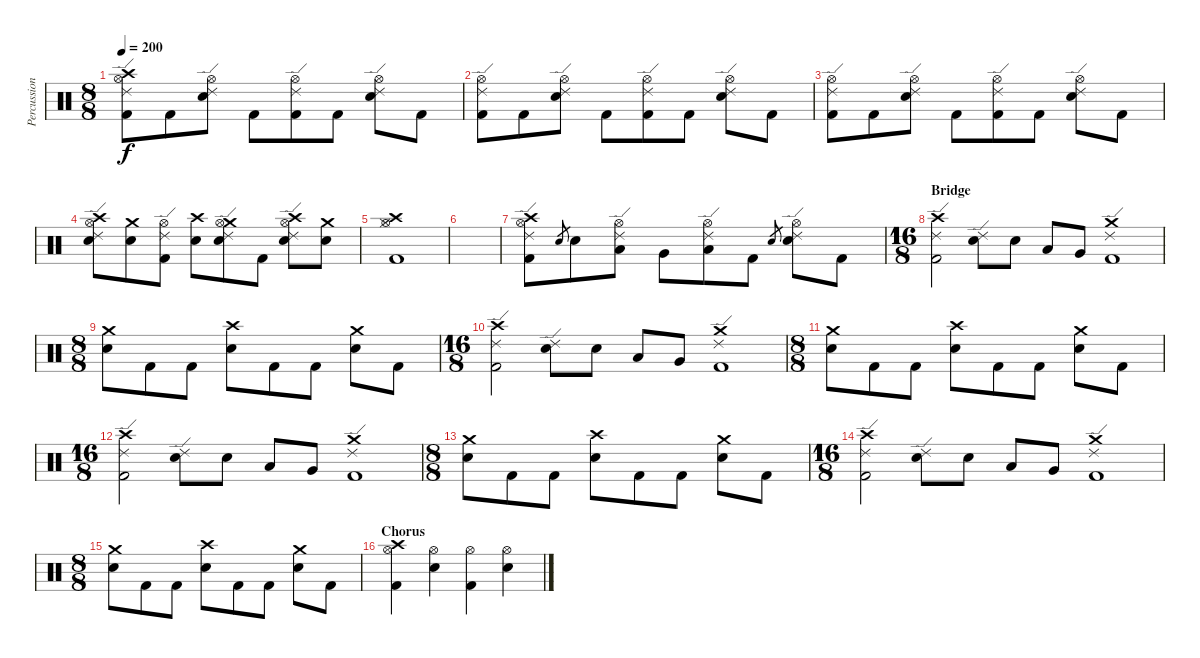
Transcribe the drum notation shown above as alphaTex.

\track ("Percussions" "Percussion") {instrument percussion}
\staff {score}
\articulation defaults
\ts (8 8)
\tempo 200
\clef neutral
\ks c
("Crash high (hit)" "Hi-Hat (open)" "Ride (edge) 2" "Kick (hit) 2").8{dy f} "Kick (hit) 2".8 ("Hi-Hat (open)" "Ride (edge) 2" "Electric Snare (hit)").8 "Kick (hit) 2".8 ("Hi-Hat (open)" "Ride (edge) 2" "Kick (hit) 2").8 "Kick (hit) 2".8 ("Hi-Hat (open)" "Ride (edge) 2" "Electric Snare (hit)").8 "Kick (hit) 2".8 |
("Hi-Hat (open)" "Ride (edge) 2" "Kick (hit) 2").8 "Kick (hit) 2".8 ("Hi-Hat (open)" "Ride (edge) 2" "Electric Snare (hit)").8 "Kick (hit) 2".8 ("Hi-Hat (open)" "Ride (edge) 2" "Kick (hit) 2").8 "Kick (hit) 2".8 ("Hi-Hat (open)" "Ride (edge) 2" "Electric Snare (hit)").8 "Kick (hit) 2".8 |
("Hi-Hat (open)" "Ride (edge) 2" "Kick (hit) 2").8 "Kick (hit) 2".8 ("Hi-Hat (open)" "Ride (edge) 2" "Electric Snare (hit)").8 "Kick (hit) 2".8 ("Hi-Hat (open)" "Ride (edge) 2" "Kick (hit) 2").8 "Kick (hit) 2".8 ("Hi-Hat (open)" "Ride (edge) 2" "Electric Snare (hit)").8 "Kick (hit) 2".8 |
("Crash high (hit)" "Ride (edge) 2" "Hi-Hat (open)" "Electric Snare (hit)").8 ("Crash medium (hit)" "Electric Snare (hit)").8 ("Ride (edge) 2" "Hi-Hat (open)" "Kick (hit) 2").8 ("Crash high (hit)" "Electric Snare (hit)").8 ("Crash medium (hit)" "Ride (edge) 2" "Hi-Hat (open)" "Electric Snare (hit)").8 "Kick (hit) 2".8 ("Crash high (hit)" "Ride (edge) 2" "Hi-Hat (open)" "Electric Snare (hit)").8 ("Crash medium (hit)" "Electric Snare (hit)").8 |
("Crash high (hit)" "Hi-Hat (closed)" "Hi-Hat (open)" "Kick (hit) 2").1 |
|
("Ride (edge) 2" "Crash high (hit)" "Hi-Hat (open)" "Kick (hit) 2").8 "Electric Snare (hit)".8{gr} "Electric Snare (hit)".8 ("Ride (edge) 2" "Hi-Hat (open)" "Low Tom (hit)").8 "Very Low Tom (hit)".8 ("Ride (edge) 2" "Hi-Hat (open)" "Low Floor Tom (hit)").8 "Kick (hit) 2".8 "Electric Snare (hit)".8{gr} ("Ride (edge) 2" "Hi-Hat (open)" "Electric Snare (hit)").8 "Kick (hit) 2".8 |
\ts (16 8)
\section ("" "Bridge")
("Crash high (hit)" "Ride (edge) 2" "Kick (hit) 2").2 ("Ride (edge) 2" "Electric Snare (hit)").8 "Electric Snare (hit)".8 "Low Tom (hit)".8 "Very Low Tom (hit)".8 ("Crash medium (hit)" "Ride (edge) 2" "Kick (hit) 2").1 |
\ts (8 8)
("Crash medium (hit)" "Electric Snare (hit)").8 "Kick (hit) 2".8 "Kick (hit) 2".8 ("Crash high (hit)" "Electric Snare (hit)").8 "Kick (hit) 2".8 "Kick (hit) 2".8 ("Crash medium (hit)" "Electric Snare (hit)").8 "Kick (hit) 2".8 |
\ts (16 8)
("Crash high (hit)" "Ride (edge) 2" "Kick (hit) 2").2 ("Ride (edge) 2" "Electric Snare (hit)").8 "Electric Snare (hit)".8 "Low Tom (hit)".8 "Very Low Tom (hit)".8 ("Crash medium (hit)" "Ride (edge) 2" "Kick (hit) 2").1 |
\ts (8 8)
("Crash medium (hit)" "Electric Snare (hit)").8 "Kick (hit) 2".8 "Kick (hit) 2".8 ("Crash high (hit)" "Electric Snare (hit)").8 "Kick (hit) 2".8 "Kick (hit) 2".8 ("Crash medium (hit)" "Electric Snare (hit)").8 "Kick (hit) 2".8 |
\ts (16 8)
("Crash high (hit)" "Ride (edge) 2" "Kick (hit) 2").2 ("Ride (edge) 2" "Electric Snare (hit)").8 "Electric Snare (hit)".8 "Low Tom (hit)".8 "Very Low Tom (hit)".8 ("Crash medium (hit)" "Ride (edge) 2" "Kick (hit) 2").1 |
\ts (8 8)
("Crash medium (hit)" "Electric Snare (hit)").8 "Kick (hit) 2".8 "Kick (hit) 2".8 ("Crash high (hit)" "Electric Snare (hit)").8 "Kick (hit) 2".8 "Kick (hit) 2".8 ("Crash medium (hit)" "Electric Snare (hit)").8 "Kick (hit) 2".8 |
\ts (16 8)
("Crash high (hit)" "Ride (edge) 2" "Kick (hit) 2").2 ("Ride (edge) 2" "Electric Snare (hit)").8 "Electric Snare (hit)".8 "Low Tom (hit)".8 "Very Low Tom (hit)".8 ("Crash medium (hit)" "Ride (edge) 2" "Kick (hit) 2").1 |
\ts (8 8)
("Crash medium (hit)" "Electric Snare (hit)").8 "Kick (hit) 2".8 "Kick (hit) 2".8 ("Crash high (hit)" "Electric Snare (hit)").8 "Kick (hit) 2".8 "Kick (hit) 2".8 ("Crash medium (hit)" "Electric Snare (hit)").8 "Kick (hit) 2".8 |
\section ("" "Chorus")
("Crash high (hit)" "Hi-Hat (open)" "Kick (hit) 2").4 ("Hi-Hat (open)" "Electric Snare (hit)").4 ("Hi-Hat (open)" "Kick (hit) 2").4 ("Hi-Hat (open)" "Electric Snare (hit)").4
